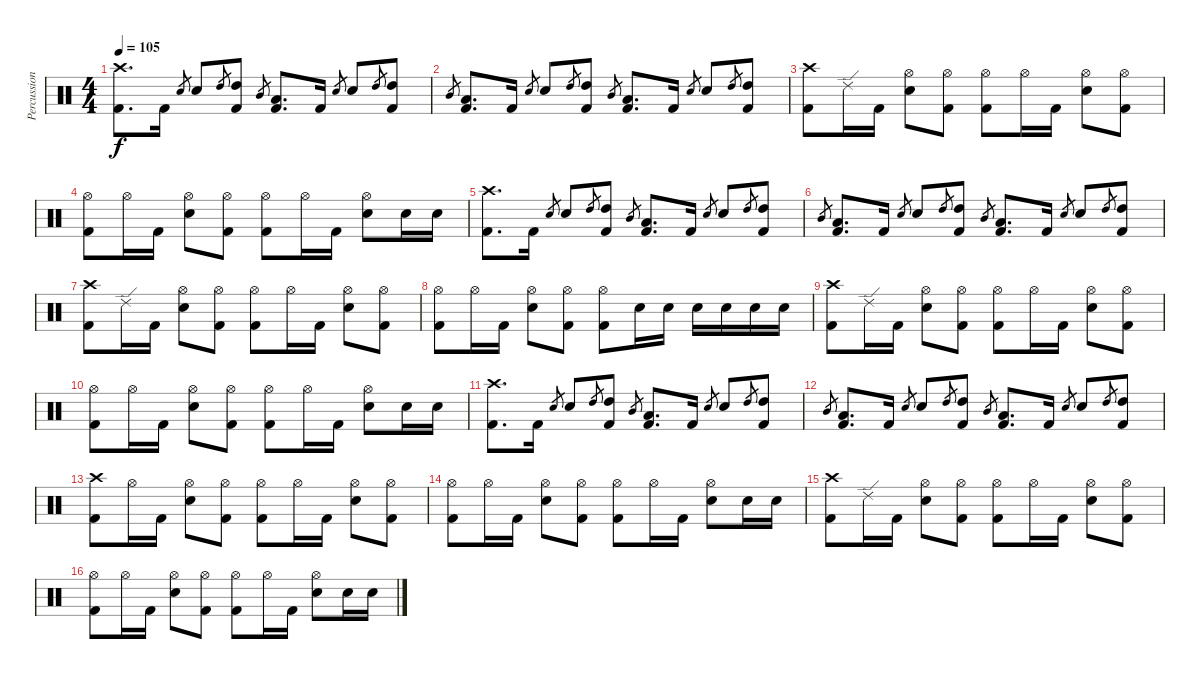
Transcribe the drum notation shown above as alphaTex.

\track ("Percussion" "Percussion") {instrument percussion}
\staff {score}
\articulation defaults
\ts (4 4)
\tempo 105
\clef neutral
\ks c
("Crash high (hit)" "Kick (hit) 2").8{d dy f} "Kick (hit) 2".16 "Electric Snare (hit)".8{gr} "Electric Snare (hit)".8 "High Tom (hit)".8{gr} ("High Tom (hit)" "Kick (hit) 2").8 "Mid Tom (hit)".8{gr} ("Low Tom (hit)" "Kick (hit) 2").8{d} "Kick (hit) 2".16 "Electric Snare (hit)".8{gr} "Electric Snare (hit)".8 "High Tom (hit)".8{gr} ("High Tom (hit)" "Kick (hit) 2").8 |
"Mid Tom (hit)".8{gr} ("Low Tom (hit)" "Kick (hit) 2").8{d} "Kick (hit) 2".16 "Electric Snare (hit)".8{gr} "Electric Snare (hit)".8 "High Tom (hit)".8{gr} ("High Tom (hit)" "Kick (hit) 2").8 "Mid Tom (hit)".8{gr} ("Low Tom (hit)" "Kick (hit) 2").8{d} "Kick (hit) 2".16 "Electric Snare (hit)".8{gr} "Electric Snare (hit)".8 "High Tom (hit)".8{gr} ("High Tom (hit)" "Kick (hit) 2").8 |
("Crash high (hit)" "Kick (hit) 2").8 "Ride (edge) 2".16 "Kick (hit) 2".16 ("Hi-Hat (open)" "Electric Snare (hit)").8 ("Hi-Hat (open)" "Kick (hit) 2").8 ("Hi-Hat (open)" "Kick (hit) 2").8 "Hi-Hat (open)".16 "Kick (hit) 2".16 ("Hi-Hat (open)" "Electric Snare (hit)").8 ("Hi-Hat (open)" "Kick (hit) 2").8 |
("Hi-Hat (open)" "Kick (hit) 2").8 "Hi-Hat (open)".16 "Kick (hit) 2".16 ("Hi-Hat (open)" "Electric Snare (hit)").8 ("Hi-Hat (open)" "Kick (hit) 2").8 ("Hi-Hat (open)" "Kick (hit) 2").8 "Hi-Hat (open)".16 "Kick (hit) 2".16 ("Hi-Hat (open)" "Electric Snare (hit)").8 "Electric Snare (hit)".16 "Electric Snare (hit)".16 |
("Crash high (hit)" "Kick (hit) 2").8{d} "Kick (hit) 2".16 "Electric Snare (hit)".8{gr} "Electric Snare (hit)".8 "High Tom (hit)".8{gr} ("High Tom (hit)" "Kick (hit) 2").8 "Mid Tom (hit)".8{gr} ("Low Tom (hit)" "Kick (hit) 2").8{d} "Kick (hit) 2".16 "Electric Snare (hit)".8{gr} "Electric Snare (hit)".8 "High Tom (hit)".8{gr} ("High Tom (hit)" "Kick (hit) 2").8 |
"Mid Tom (hit)".8{gr} ("Low Tom (hit)" "Kick (hit) 2").8{d} "Kick (hit) 2".16 "Electric Snare (hit)".8{gr} "Electric Snare (hit)".8 "High Tom (hit)".8{gr} ("High Tom (hit)" "Kick (hit) 2").8 "Mid Tom (hit)".8{gr} ("Low Tom (hit)" "Kick (hit) 2").8{d} "Kick (hit) 2".16 "Electric Snare (hit)".8{gr} "Electric Snare (hit)".8 "High Tom (hit)".8{gr} ("High Tom (hit)" "Kick (hit) 2").8 |
("Crash high (hit)" "Kick (hit) 2").8 "Ride (edge) 2".16 "Kick (hit) 2".16 ("Hi-Hat (open)" "Electric Snare (hit)").8 ("Hi-Hat (open)" "Kick (hit) 2").8 ("Hi-Hat (open)" "Kick (hit) 2").8 "Hi-Hat (open)".16 "Kick (hit) 2".16 ("Hi-Hat (open)" "Electric Snare (hit)").8 ("Hi-Hat (open)" "Kick (hit) 2").8 |
("Hi-Hat (open)" "Kick (hit) 2").8 "Hi-Hat (open)".16 "Kick (hit) 2".16 ("Hi-Hat (open)" "Electric Snare (hit)").8 ("Hi-Hat (open)" "Kick (hit) 2").8 ("Hi-Hat (open)" "Kick (hit) 2").8 "Electric Snare (hit)".16 "Electric Snare (hit)".16 "Electric Snare (hit)".16 "Electric Snare (hit)".16 "Electric Snare (hit)".16 "Electric Snare (hit)".16 |
("Crash high (hit)" "Kick (hit) 2").8 "Ride (edge) 2".16 "Kick (hit) 2".16 ("Hi-Hat (open)" "Electric Snare (hit)").8 ("Hi-Hat (open)" "Kick (hit) 2").8 ("Hi-Hat (open)" "Kick (hit) 2").8 "Hi-Hat (open)".16 "Kick (hit) 2".16 ("Hi-Hat (open)" "Electric Snare (hit)").8 ("Hi-Hat (open)" "Kick (hit) 2").8 |
("Hi-Hat (open)" "Kick (hit) 2").8 "Hi-Hat (open)".16 "Kick (hit) 2".16 ("Hi-Hat (open)" "Electric Snare (hit)").8 ("Hi-Hat (open)" "Kick (hit) 2").8 ("Hi-Hat (open)" "Kick (hit) 2").8 "Hi-Hat (open)".16 "Kick (hit) 2".16 ("Hi-Hat (open)" "Electric Snare (hit)").8 "Electric Snare (hit)".16 "Electric Snare (hit)".16 |
("Crash high (hit)" "Kick (hit) 2").8{d} "Kick (hit) 2".16 "Electric Snare (hit)".8{gr} "Electric Snare (hit)".8 "High Tom (hit)".8{gr} ("High Tom (hit)" "Kick (hit) 2").8 "Mid Tom (hit)".8{gr} ("Low Tom (hit)" "Kick (hit) 2").8{d} "Kick (hit) 2".16 "Electric Snare (hit)".8{gr} "Electric Snare (hit)".8 "High Tom (hit)".8{gr} ("High Tom (hit)" "Kick (hit) 2").8 |
"Mid Tom (hit)".8{gr} ("Low Tom (hit)" "Kick (hit) 2").8{d} "Kick (hit) 2".16 "Electric Snare (hit)".8{gr} "Electric Snare (hit)".8 "High Tom (hit)".8{gr} ("High Tom (hit)" "Kick (hit) 2").8 "Mid Tom (hit)".8{gr} ("Low Tom (hit)" "Kick (hit) 2").8{d} "Kick (hit) 2".16 "Electric Snare (hit)".8{gr} "Electric Snare (hit)".8 "High Tom (hit)".8{gr} ("High Tom (hit)" "Kick (hit) 2").8 |
("Crash high (hit)" "Kick (hit) 2").8 "Hi-Hat (open)".16 "Kick (hit) 2".16 ("Hi-Hat (open)" "Electric Snare (hit)").8 ("Hi-Hat (open)" "Kick (hit) 2").8 ("Hi-Hat (open)" "Kick (hit) 2").8 "Hi-Hat (open)".16 "Kick (hit) 2".16 ("Hi-Hat (open)" "Electric Snare (hit)").8 ("Hi-Hat (open)" "Kick (hit) 2").8 |
("Hi-Hat (open)" "Kick (hit) 2").8 "Hi-Hat (open)".16 "Kick (hit) 2".16 ("Hi-Hat (open)" "Electric Snare (hit)").8 ("Hi-Hat (open)" "Kick (hit) 2").8 ("Hi-Hat (open)" "Kick (hit) 2").8 "Hi-Hat (open)".16 "Kick (hit) 2".16 ("Hi-Hat (open)" "Electric Snare (hit)").8 "Electric Snare (hit)".16 "Electric Snare (hit)".16 |
("Crash high (hit)" "Kick (hit) 2").8 "Ride (edge) 2".16 "Kick (hit) 2".16 ("Hi-Hat (open)" "Electric Snare (hit)").8 ("Hi-Hat (open)" "Kick (hit) 2").8 ("Hi-Hat (open)" "Kick (hit) 2").8 "Hi-Hat (open)".16 "Kick (hit) 2".16 ("Hi-Hat (open)" "Electric Snare (hit)").8 ("Hi-Hat (open)" "Kick (hit) 2").8 |
("Hi-Hat (open)" "Kick (hit) 2").8 "Hi-Hat (open)".16 "Kick (hit) 2".16 ("Hi-Hat (open)" "Electric Snare (hit)").8 ("Hi-Hat (open)" "Kick (hit) 2").8 ("Hi-Hat (open)" "Kick (hit) 2").8 "Hi-Hat (open)".16 "Kick (hit) 2".16 ("Hi-Hat (open)" "Electric Snare (hit)").8 "Electric Snare (hit)".16 "Electric Snare (hit)".16
